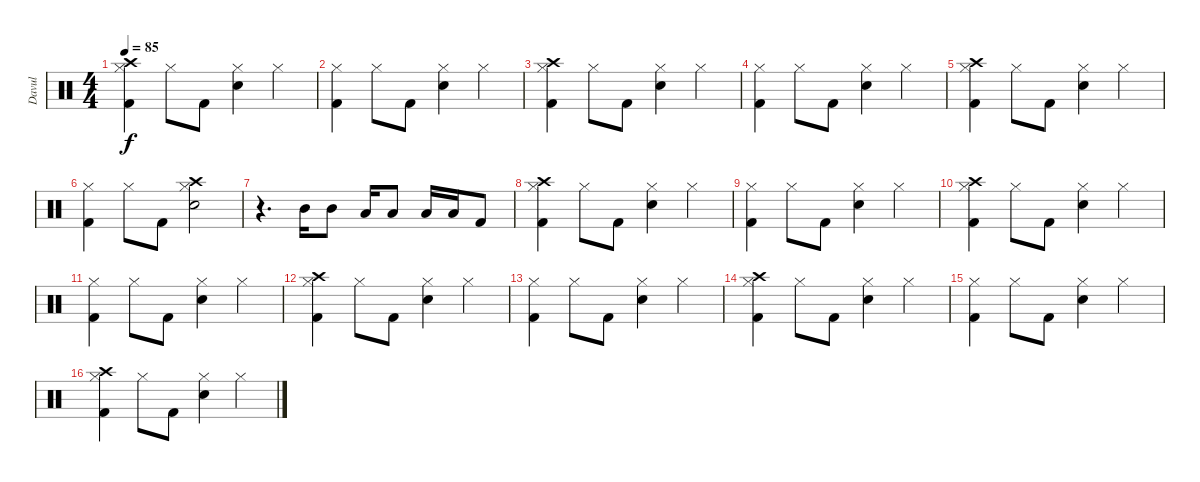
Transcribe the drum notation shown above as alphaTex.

\track ("Davul" "Davul") {instrument percussion}
\staff {score}
\articulation defaults
\ts (4 4)
\tempo 85
\clef neutral
\ks c
("Hi-Hat (closed)" "Crash high (hit)" "Kick (hit) 2").4{dy f} "Hi-Hat (closed)".8 "Kick (hit) 2".8 ("Hi-Hat (closed)" "Snare (hit) 2").4 "Hi-Hat (closed)".4 |
("Hi-Hat (closed)" "Kick (hit) 2").4 "Hi-Hat (closed)".8 "Kick (hit) 2".8 ("Hi-Hat (closed)" "Snare (hit) 2").4 "Hi-Hat (closed)".4 |
("Hi-Hat (closed)" "Crash high (hit)" "Kick (hit) 2").4 "Hi-Hat (closed)".8 "Kick (hit) 2".8 ("Hi-Hat (closed)" "Snare (hit) 2").4 "Hi-Hat (closed)".4 |
("Hi-Hat (closed)" "Kick (hit) 2").4 "Hi-Hat (closed)".8 "Kick (hit) 2".8 ("Hi-Hat (closed)" "Snare (hit) 2").4 "Hi-Hat (closed)".4 |
("Hi-Hat (closed)" "Crash high (hit)" "Kick (hit) 2").4 "Hi-Hat (closed)".8 "Kick (hit) 2".8 ("Hi-Hat (closed)" "Snare (hit) 2").4 "Hi-Hat (closed)".4 |
("Hi-Hat (closed)" "Kick (hit) 2").4 "Hi-Hat (closed)".8 "Kick (hit) 2".8 ("Hi-Hat (closed)" "Crash high (hit)" "Snare (hit) 2").2 |
r.4{d} "Mid Tom (hit)".16 "Mid Tom (hit)".8 "Low Tom (hit)".16 "Low Tom (hit)".8 "Low Floor Tom (hit)".16 "Low Floor Tom (hit)".16 "Kick (hit) 2".8 |
("Hi-Hat (closed)" "Crash high (hit)" "Kick (hit) 2").4 "Hi-Hat (closed)".8 "Kick (hit) 2".8 ("Hi-Hat (closed)" "Snare (hit) 2").4 "Hi-Hat (closed)".4 |
("Hi-Hat (closed)" "Kick (hit) 2").4 "Hi-Hat (closed)".8 "Kick (hit) 2".8 ("Hi-Hat (closed)" "Snare (hit) 2").4 "Hi-Hat (closed)".4 |
("Hi-Hat (closed)" "Crash high (hit)" "Kick (hit) 2").4 "Hi-Hat (closed)".8 "Kick (hit) 2".8 ("Hi-Hat (closed)" "Snare (hit) 2").4 "Hi-Hat (closed)".4 |
("Hi-Hat (closed)" "Kick (hit) 2").4 "Hi-Hat (closed)".8 "Kick (hit) 2".8 ("Hi-Hat (closed)" "Snare (hit) 2").4 "Hi-Hat (closed)".4 |
("Hi-Hat (closed)" "Crash high (hit)" "Kick (hit) 2").4 "Hi-Hat (closed)".8 "Kick (hit) 2".8 ("Hi-Hat (closed)" "Snare (hit) 2").4 "Hi-Hat (closed)".4 |
("Hi-Hat (closed)" "Kick (hit) 2").4 "Hi-Hat (closed)".8 "Kick (hit) 2".8 ("Hi-Hat (closed)" "Snare (hit) 2").4 "Hi-Hat (closed)".4 |
("Hi-Hat (closed)" "Crash high (hit)" "Kick (hit) 2").4 "Hi-Hat (closed)".8 "Kick (hit) 2".8 ("Hi-Hat (closed)" "Snare (hit) 2").4 "Hi-Hat (closed)".4 |
("Hi-Hat (closed)" "Kick (hit) 2").4 "Hi-Hat (closed)".8 "Kick (hit) 2".8 ("Hi-Hat (closed)" "Snare (hit) 2").4 "Hi-Hat (closed)".4 |
("Hi-Hat (closed)" "Crash high (hit)" "Kick (hit) 2").4 "Hi-Hat (closed)".8 "Kick (hit) 2".8 ("Hi-Hat (closed)" "Snare (hit) 2").4 "Hi-Hat (closed)".4
